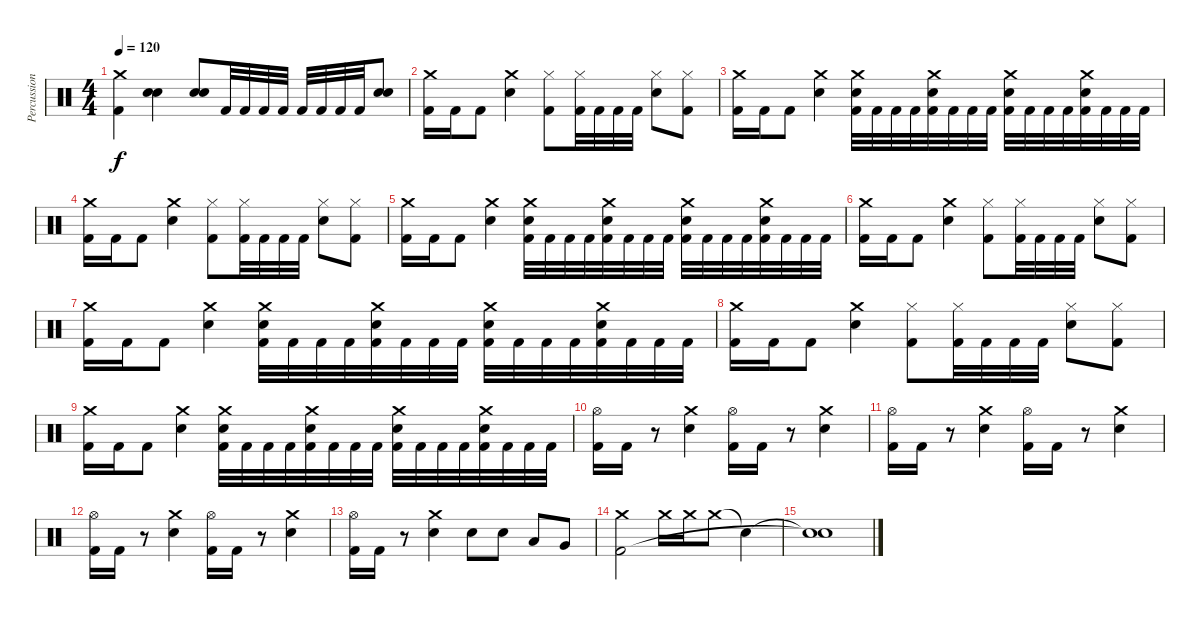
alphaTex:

\track ("Percussion" "Percussion") {instrument percussion}
\staff {score}
\articulation defaults
\ts (4 4)
\tempo 120
\clef neutral
\ks c
("Crash medium (hit)" "Kick (hit) 2").4{dy f} ("Electric Snare (hit)" "Electric Snare (hit)").4 ("Electric Snare (hit)" "Electric Snare (hit)").8 "Kick (hit) 2".32 "Kick (hit) 2".32 "Kick (hit) 2".32 "Kick (hit) 2".32 "Kick (hit) 2".32 "Kick (hit) 2".32 "Kick (hit) 2".32 "Kick (hit) 2".32 ("Electric Snare (hit)" "Electric Snare (hit)").8 |
("Crash medium (hit)" "Kick (hit) 2").16 "Kick (hit) 2".16 "Kick (hit) 2".8 ("Crash medium (hit)" "Electric Snare (hit)").4 ("Hi-Hat (closed)" "Kick (hit) 2").8 ("Hi-Hat (closed)" "Kick (hit) 2").32 "Kick (hit) 2".32 "Kick (hit) 2".32 "Kick (hit) 2".32 ("Hi-Hat (closed)" "Electric Snare (hit)").8 ("Hi-Hat (closed)" "Kick (hit) 2").8 |
("Crash medium (hit)" "Kick (hit) 2").16 "Kick (hit) 2".16 "Kick (hit) 2".8 ("Crash medium (hit)" "Electric Snare (hit)").4 ("Crash medium (hit)" "Electric Snare (hit)" "Kick (hit) 2").32 "Kick (hit) 2".32 "Kick (hit) 2".32 "Kick (hit) 2".32 ("Crash medium (hit)" "Electric Snare (hit)" "Kick (hit) 2").32 "Kick (hit) 2".32 "Kick (hit) 2".32 "Kick (hit) 2".32 ("Crash medium (hit)" "Electric Snare (hit)" "Kick (hit) 2").32 "Kick (hit) 2".32 "Kick (hit) 2".32 "Kick (hit) 2".32 ("Crash medium (hit)" "Electric Snare (hit)" "Kick (hit) 2").32 "Kick (hit) 2".32 "Kick (hit) 2".32 "Kick (hit) 2".32 |
("Crash medium (hit)" "Kick (hit) 2").16 "Kick (hit) 2".16 "Kick (hit) 2".8 ("Crash medium (hit)" "Electric Snare (hit)").4 ("Hi-Hat (closed)" "Kick (hit) 2").8 ("Hi-Hat (closed)" "Kick (hit) 2").32 "Kick (hit) 2".32 "Kick (hit) 2".32 "Kick (hit) 2".32 ("Hi-Hat (closed)" "Electric Snare (hit)").8 ("Hi-Hat (closed)" "Kick (hit) 2").8 |
("Crash medium (hit)" "Kick (hit) 2").16 "Kick (hit) 2".16 "Kick (hit) 2".8 ("Crash medium (hit)" "Electric Snare (hit)").4 ("Crash medium (hit)" "Electric Snare (hit)" "Kick (hit) 2").32 "Kick (hit) 2".32 "Kick (hit) 2".32 "Kick (hit) 2".32 ("Crash medium (hit)" "Electric Snare (hit)" "Kick (hit) 2").32 "Kick (hit) 2".32 "Kick (hit) 2".32 "Kick (hit) 2".32 ("Crash medium (hit)" "Electric Snare (hit)" "Kick (hit) 2").32 "Kick (hit) 2".32 "Kick (hit) 2".32 "Kick (hit) 2".32 ("Crash medium (hit)" "Electric Snare (hit)" "Kick (hit) 2").32 "Kick (hit) 2".32 "Kick (hit) 2".32 "Kick (hit) 2".32 |
("Crash medium (hit)" "Kick (hit) 2").16 "Kick (hit) 2".16 "Kick (hit) 2".8 ("Crash medium (hit)" "Electric Snare (hit)").4 ("Hi-Hat (closed)" "Kick (hit) 2").8 ("Hi-Hat (closed)" "Kick (hit) 2").32 "Kick (hit) 2".32 "Kick (hit) 2".32 "Kick (hit) 2".32 ("Hi-Hat (closed)" "Electric Snare (hit)").8 ("Hi-Hat (closed)" "Kick (hit) 2").8 |
("Crash medium (hit)" "Kick (hit) 2").16 "Kick (hit) 2".16 "Kick (hit) 2".8 ("Crash medium (hit)" "Electric Snare (hit)").4 ("Crash medium (hit)" "Electric Snare (hit)" "Kick (hit) 2").32 "Kick (hit) 2".32 "Kick (hit) 2".32 "Kick (hit) 2".32 ("Crash medium (hit)" "Electric Snare (hit)" "Kick (hit) 2").32 "Kick (hit) 2".32 "Kick (hit) 2".32 "Kick (hit) 2".32 ("Crash medium (hit)" "Electric Snare (hit)" "Kick (hit) 2").32 "Kick (hit) 2".32 "Kick (hit) 2".32 "Kick (hit) 2".32 ("Crash medium (hit)" "Electric Snare (hit)" "Kick (hit) 2").32 "Kick (hit) 2".32 "Kick (hit) 2".32 "Kick (hit) 2".32 |
("Crash medium (hit)" "Kick (hit) 2").16 "Kick (hit) 2".16 "Kick (hit) 2".8 ("Crash medium (hit)" "Electric Snare (hit)").4 ("Hi-Hat (closed)" "Kick (hit) 2").8 ("Hi-Hat (closed)" "Kick (hit) 2").32 "Kick (hit) 2".32 "Kick (hit) 2".32 "Kick (hit) 2".32 ("Hi-Hat (closed)" "Electric Snare (hit)").8 ("Hi-Hat (closed)" "Kick (hit) 2").8 |
("Crash medium (hit)" "Kick (hit) 2").16 "Kick (hit) 2".16 "Kick (hit) 2".8 ("Crash medium (hit)" "Electric Snare (hit)").4 ("Crash medium (hit)" "Electric Snare (hit)" "Kick (hit) 2").32 "Kick (hit) 2".32 "Kick (hit) 2".32 "Kick (hit) 2".32 ("Crash medium (hit)" "Electric Snare (hit)" "Kick (hit) 2").32 "Kick (hit) 2".32 "Kick (hit) 2".32 "Kick (hit) 2".32 ("Crash medium (hit)" "Electric Snare (hit)" "Kick (hit) 2").32 "Kick (hit) 2".32 "Kick (hit) 2".32 "Kick (hit) 2".32 ("Crash medium (hit)" "Electric Snare (hit)" "Kick (hit) 2").32 "Kick (hit) 2".32 "Kick (hit) 2".32 "Kick (hit) 2".32 |
("Hi-Hat (open)" "Kick (hit) 2").16 "Kick (hit) 2".16 r.8 ("Crash medium (hit)" "Electric Snare (hit)").4 ("Hi-Hat (open)" "Kick (hit) 2").16 "Kick (hit) 2".16 r.8 ("Crash medium (hit)" "Electric Snare (hit)").4 |
("Hi-Hat (open)" "Kick (hit) 2").16 "Kick (hit) 2".16 r.8 ("Crash medium (hit)" "Electric Snare (hit)").4 ("Hi-Hat (open)" "Kick (hit) 2").16 "Kick (hit) 2".16 r.8 ("Crash medium (hit)" "Electric Snare (hit)").4 |
("Hi-Hat (open)" "Kick (hit) 2").16 "Kick (hit) 2".16 r.8 ("Crash medium (hit)" "Electric Snare (hit)").4 ("Hi-Hat (open)" "Kick (hit) 2").16 "Kick (hit) 2".16 r.8 ("Crash medium (hit)" "Electric Snare (hit)").4 |
("Hi-Hat (open)" "Kick (hit) 2").16 "Kick (hit) 2".16 r.8 ("Crash medium (hit)" "Electric Snare (hit)").4 "Electric Snare (hit)".8 "Electric Snare (hit)".8 "Low Tom (hit)".8 "Very Low Tom (hit)".8 |
("Crash medium (hit)" "Kick (hit) 2").2 "Crash medium (hit)".16 "Crash medium (hit)".16 "Crash medium (hit)".8 "Snare (hit)"{t}.4 |
("Snare (hit)"{t} "Snare (hit)"{t}).1
